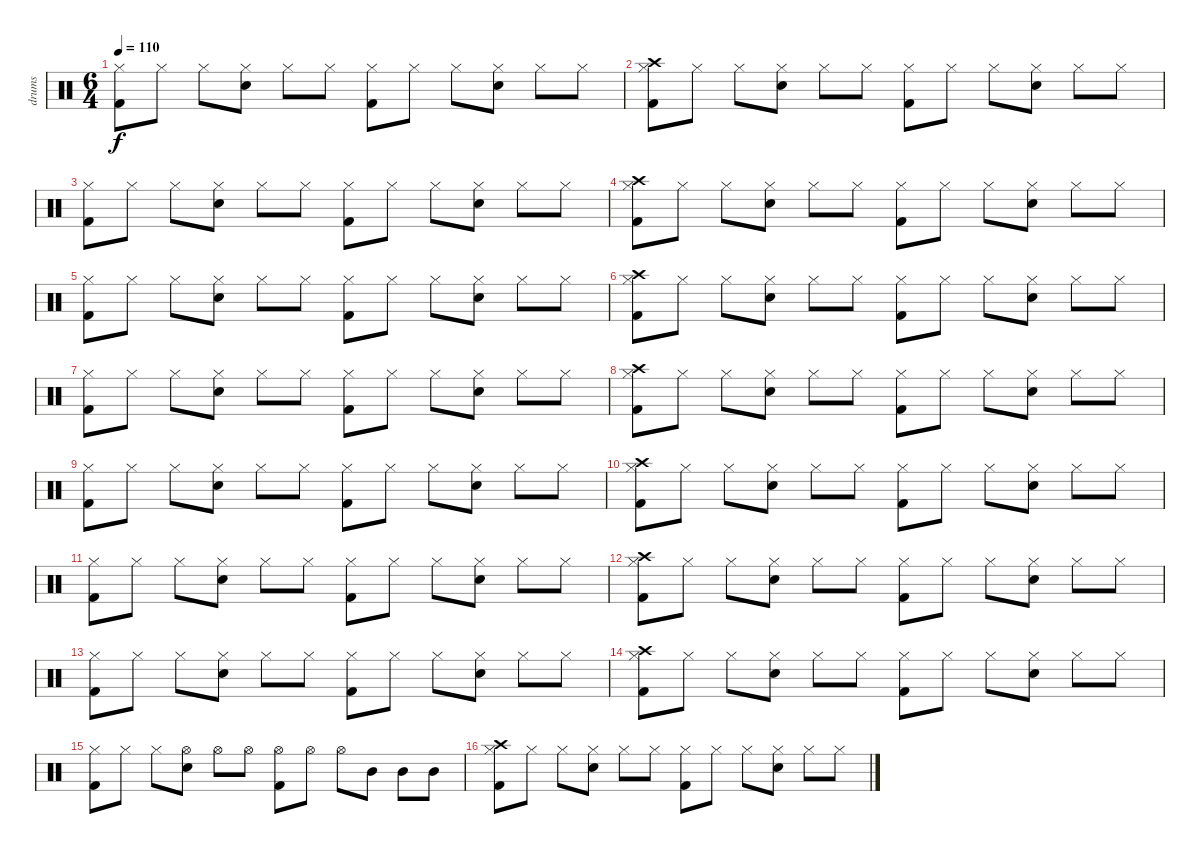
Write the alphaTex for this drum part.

\track ("drums" "drums") {instrument percussion}
\staff {score}
\articulation defaults
\ts (6 4)
\tempo 110
\clef neutral
\ks c
("Hi-Hat (closed)" "Kick (hit) 2").8{dy f} "Hi-Hat (closed)".8 "Hi-Hat (closed)".8 ("Hi-Hat (closed)" "Snare (hit) 2").8 "Hi-Hat (closed)".8 "Hi-Hat (closed)".8 ("Hi-Hat (closed)" "Kick (hit) 2").8 "Hi-Hat (closed)".8 "Hi-Hat (closed)".8 ("Hi-Hat (closed)" "Snare (hit) 2").8 "Hi-Hat (closed)".8 "Hi-Hat (closed)".8 |
("Hi-Hat (closed)" "Kick (hit) 2" "Crash high (hit)").8 "Hi-Hat (closed)".8 "Hi-Hat (closed)".8 ("Hi-Hat (closed)" "Snare (hit) 2").8 "Hi-Hat (closed)".8 "Hi-Hat (closed)".8 ("Hi-Hat (closed)" "Kick (hit) 2").8 "Hi-Hat (closed)".8 "Hi-Hat (closed)".8 ("Hi-Hat (closed)" "Snare (hit) 2").8 "Hi-Hat (closed)".8 "Hi-Hat (closed)".8 |
("Hi-Hat (closed)" "Kick (hit) 2").8 "Hi-Hat (closed)".8 "Hi-Hat (closed)".8 ("Hi-Hat (closed)" "Snare (hit) 2").8 "Hi-Hat (closed)".8 "Hi-Hat (closed)".8 ("Hi-Hat (closed)" "Kick (hit) 2").8 "Hi-Hat (closed)".8 "Hi-Hat (closed)".8 ("Hi-Hat (closed)" "Snare (hit) 2").8 "Hi-Hat (closed)".8 "Hi-Hat (closed)".8 |
("Hi-Hat (closed)" "Kick (hit) 2" "Crash high (hit)").8 "Hi-Hat (closed)".8 "Hi-Hat (closed)".8 ("Hi-Hat (closed)" "Snare (hit) 2").8 "Hi-Hat (closed)".8 "Hi-Hat (closed)".8 ("Hi-Hat (closed)" "Kick (hit) 2").8 "Hi-Hat (closed)".8 "Hi-Hat (closed)".8 ("Hi-Hat (closed)" "Snare (hit) 2").8 "Hi-Hat (closed)".8 "Hi-Hat (closed)".8 |
("Hi-Hat (closed)" "Kick (hit) 2").8 "Hi-Hat (closed)".8 "Hi-Hat (closed)".8 ("Hi-Hat (closed)" "Snare (hit) 2").8 "Hi-Hat (closed)".8 "Hi-Hat (closed)".8 ("Hi-Hat (closed)" "Kick (hit) 2").8 "Hi-Hat (closed)".8 "Hi-Hat (closed)".8 ("Hi-Hat (closed)" "Snare (hit) 2").8 "Hi-Hat (closed)".8 "Hi-Hat (closed)".8 |
("Hi-Hat (closed)" "Kick (hit) 2" "Crash high (hit)").8 "Hi-Hat (closed)".8 "Hi-Hat (closed)".8 ("Hi-Hat (closed)" "Snare (hit) 2").8 "Hi-Hat (closed)".8 "Hi-Hat (closed)".8 ("Hi-Hat (closed)" "Kick (hit) 2").8 "Hi-Hat (closed)".8 "Hi-Hat (closed)".8 ("Hi-Hat (closed)" "Snare (hit) 2").8 "Hi-Hat (closed)".8 "Hi-Hat (closed)".8 |
("Hi-Hat (closed)" "Kick (hit) 2").8 "Hi-Hat (closed)".8 "Hi-Hat (closed)".8 ("Hi-Hat (closed)" "Snare (hit) 2").8 "Hi-Hat (closed)".8 "Hi-Hat (closed)".8 ("Hi-Hat (closed)" "Kick (hit) 2").8 "Hi-Hat (closed)".8 "Hi-Hat (closed)".8 ("Hi-Hat (closed)" "Snare (hit) 2").8 "Hi-Hat (closed)".8 "Hi-Hat (closed)".8 |
("Hi-Hat (closed)" "Kick (hit) 2" "Crash high (hit)").8 "Hi-Hat (closed)".8 "Hi-Hat (closed)".8 ("Hi-Hat (closed)" "Snare (hit) 2").8 "Hi-Hat (closed)".8 "Hi-Hat (closed)".8 ("Hi-Hat (closed)" "Kick (hit) 2").8 "Hi-Hat (closed)".8 "Hi-Hat (closed)".8 ("Hi-Hat (closed)" "Snare (hit) 2").8 "Hi-Hat (closed)".8 "Hi-Hat (closed)".8 |
("Hi-Hat (closed)" "Kick (hit) 2").8 "Hi-Hat (closed)".8 "Hi-Hat (closed)".8 ("Hi-Hat (closed)" "Snare (hit) 2").8 "Hi-Hat (closed)".8 "Hi-Hat (closed)".8 ("Hi-Hat (closed)" "Kick (hit) 2").8 "Hi-Hat (closed)".8 "Hi-Hat (closed)".8 ("Hi-Hat (closed)" "Snare (hit) 2").8 "Hi-Hat (closed)".8 "Hi-Hat (closed)".8 |
("Hi-Hat (closed)" "Kick (hit) 2" "Crash high (hit)").8 "Hi-Hat (closed)".8 "Hi-Hat (closed)".8 ("Hi-Hat (closed)" "Snare (hit) 2").8 "Hi-Hat (closed)".8 "Hi-Hat (closed)".8 ("Hi-Hat (closed)" "Kick (hit) 2").8 "Hi-Hat (closed)".8 "Hi-Hat (closed)".8 ("Hi-Hat (closed)" "Snare (hit) 2").8 "Hi-Hat (closed)".8 "Hi-Hat (closed)".8 |
("Hi-Hat (closed)" "Kick (hit) 2").8 "Hi-Hat (closed)".8 "Hi-Hat (closed)".8 ("Hi-Hat (closed)" "Snare (hit) 2").8 "Hi-Hat (closed)".8 "Hi-Hat (closed)".8 ("Hi-Hat (closed)" "Kick (hit) 2").8 "Hi-Hat (closed)".8 "Hi-Hat (closed)".8 ("Hi-Hat (closed)" "Snare (hit) 2").8 "Hi-Hat (closed)".8 "Hi-Hat (closed)".8 |
("Hi-Hat (closed)" "Kick (hit) 2" "Crash high (hit)").8 "Hi-Hat (closed)".8 "Hi-Hat (closed)".8 ("Hi-Hat (closed)" "Snare (hit) 2").8 "Hi-Hat (closed)".8 "Hi-Hat (closed)".8 ("Hi-Hat (closed)" "Kick (hit) 2").8 "Hi-Hat (closed)".8 "Hi-Hat (closed)".8 ("Hi-Hat (closed)" "Snare (hit) 2").8 "Hi-Hat (closed)".8 "Hi-Hat (closed)".8 |
("Hi-Hat (closed)" "Kick (hit) 2").8 "Hi-Hat (closed)".8 "Hi-Hat (closed)".8 ("Hi-Hat (closed)" "Snare (hit) 2").8 "Hi-Hat (closed)".8 "Hi-Hat (closed)".8 ("Hi-Hat (closed)" "Kick (hit) 2").8 "Hi-Hat (closed)".8 "Hi-Hat (closed)".8 ("Hi-Hat (closed)" "Snare (hit) 2").8 "Hi-Hat (closed)".8 "Hi-Hat (closed)".8 |
("Hi-Hat (closed)" "Kick (hit) 2" "Crash high (hit)").8 "Hi-Hat (closed)".8 "Hi-Hat (closed)".8 ("Hi-Hat (closed)" "Snare (hit) 2").8 "Hi-Hat (closed)".8 "Hi-Hat (closed)".8 ("Hi-Hat (closed)" "Kick (hit) 2").8 "Hi-Hat (closed)".8 "Hi-Hat (closed)".8 ("Hi-Hat (closed)" "Snare (hit) 2").8 "Hi-Hat (closed)".8 "Hi-Hat (closed)".8 |
("Hi-Hat (closed)" "Kick (hit) 2").8 "Hi-Hat (closed)".8 "Hi-Hat (closed)".8 ("Hi-Hat (open)" "Snare (hit) 2").8 "Hi-Hat (open)".8 "Hi-Hat (open)".8 ("Hi-Hat (open)" "Kick (hit) 2").8 "Hi-Hat (open)".8 "Hi-Hat (open)".8 "Mid Tom (hit)".8 "Mid Tom (hit)".8 "Mid Tom (hit)".8 |
("Hi-Hat (closed)" "Kick (hit) 2" "Crash high (hit)").8 "Hi-Hat (closed)".8 "Hi-Hat (closed)".8 ("Hi-Hat (closed)" "Snare (hit) 2").8 "Hi-Hat (closed)".8 "Hi-Hat (closed)".8 ("Hi-Hat (closed)" "Kick (hit) 2").8 "Hi-Hat (closed)".8 "Hi-Hat (closed)".8 ("Hi-Hat (closed)" "Snare (hit) 2").8 "Hi-Hat (closed)".8 "Hi-Hat (closed)".8
